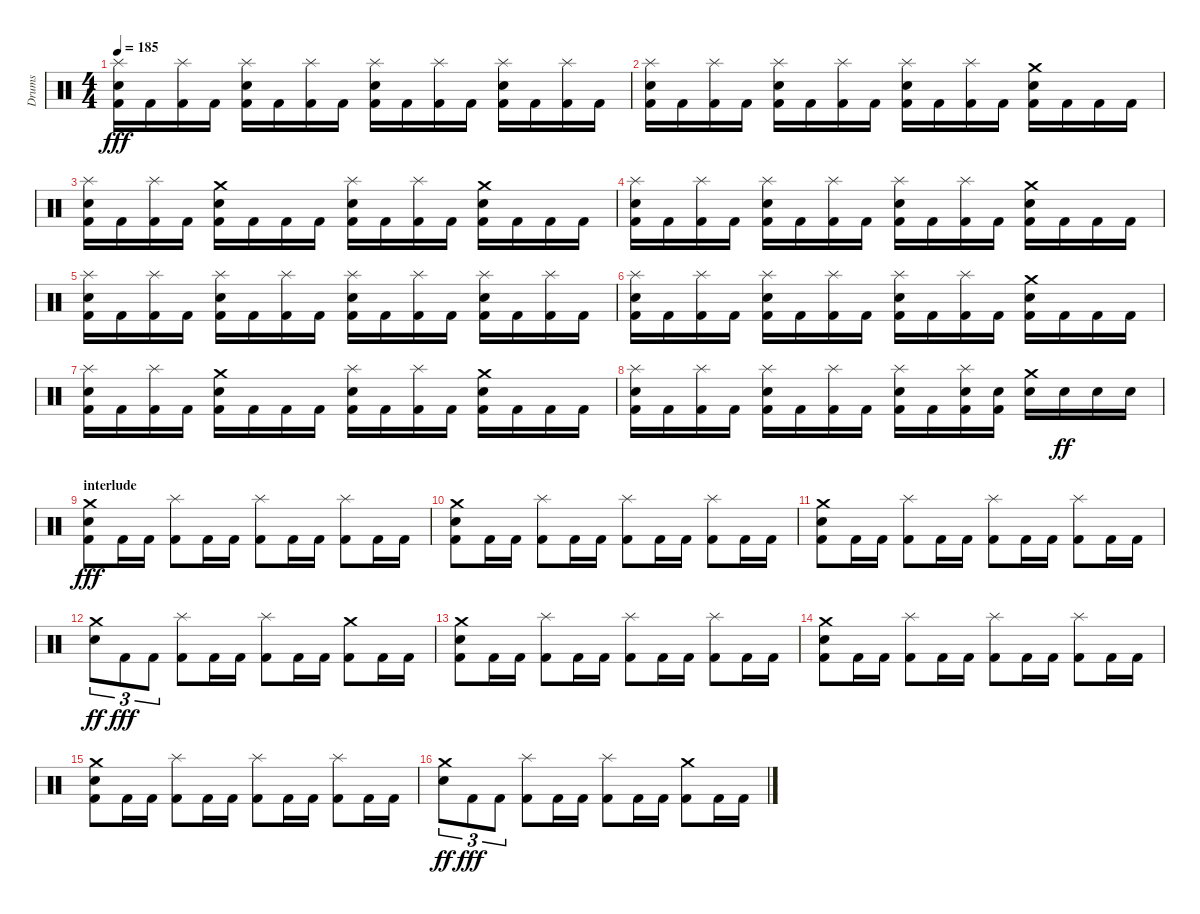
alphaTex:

\track ("Drums" "Drums") {instrument percussion}
\staff {score}
\articulation defaults
\ts (4 4)
\tempo 185
\clef neutral
\ks c
("Splash (hit)" "Electric Snare (hit)" "Kick (hit) 2").16{dy fff} "Kick (hit) 2".16 ("Splash (hit)" "Kick (hit) 2").16 "Kick (hit) 2".16 ("Splash (hit)" "Electric Snare (hit)" "Kick (hit) 2").16 "Kick (hit) 2".16 ("Splash (hit)" "Kick (hit) 2").16 "Kick (hit) 2".16 ("Splash (hit)" "Electric Snare (hit)" "Kick (hit) 2").16 "Kick (hit) 2".16 ("Splash (hit)" "Kick (hit) 2").16 "Kick (hit) 2".16 ("Splash (hit)" "Electric Snare (hit)" "Kick (hit) 2").16 "Kick (hit) 2".16 ("Splash (hit)" "Kick (hit) 2").16 "Kick (hit) 2".16 |
("Splash (hit)" "Electric Snare (hit)" "Kick (hit) 2").16 "Kick (hit) 2".16 ("Splash (hit)" "Kick (hit) 2").16 "Kick (hit) 2".16 ("Splash (hit)" "Electric Snare (hit)" "Kick (hit) 2").16 "Kick (hit) 2".16 ("Splash (hit)" "Kick (hit) 2").16 "Kick (hit) 2".16 ("Splash (hit)" "Electric Snare (hit)" "Kick (hit) 2").16 "Kick (hit) 2".16 ("Splash (hit)" "Kick (hit) 2").16 "Kick (hit) 2".16 ("Crash medium (hit)" "Electric Snare (hit)" "Kick (hit) 2").16 "Kick (hit) 2".16 "Kick (hit) 2".16 "Kick (hit) 2".16 |
("Splash (hit)" "Electric Snare (hit)" "Kick (hit) 2").16 "Kick (hit) 2".16 ("Splash (hit)" "Kick (hit) 2").16 "Kick (hit) 2".16 ("Crash medium (hit)" "Electric Snare (hit)" "Kick (hit) 2").16 "Kick (hit) 2".16 "Kick (hit) 2".16 "Kick (hit) 2".16 ("Splash (hit)" "Electric Snare (hit)" "Kick (hit) 2").16 "Kick (hit) 2".16 ("Splash (hit)" "Kick (hit) 2").16 "Kick (hit) 2".16 ("Crash medium (hit)" "Electric Snare (hit)" "Kick (hit) 2").16 "Kick (hit) 2".16 "Kick (hit) 2".16 "Kick (hit) 2".16 |
("Splash (hit)" "Electric Snare (hit)" "Kick (hit) 2").16 "Kick (hit) 2".16 ("Splash (hit)" "Kick (hit) 2").16 "Kick (hit) 2".16 ("Splash (hit)" "Electric Snare (hit)" "Kick (hit) 2").16 "Kick (hit) 2".16 ("Splash (hit)" "Kick (hit) 2").16 "Kick (hit) 2".16 ("Splash (hit)" "Electric Snare (hit)" "Kick (hit) 2").16 "Kick (hit) 2".16 ("Splash (hit)" "Kick (hit) 2").16 "Kick (hit) 2".16 ("Crash medium (hit)" "Electric Snare (hit)" "Kick (hit) 2").16 "Kick (hit) 2".16 "Kick (hit) 2".16 "Kick (hit) 2".16 |
("Splash (hit)" "Electric Snare (hit)" "Kick (hit) 2").16 "Kick (hit) 2".16 ("Splash (hit)" "Kick (hit) 2").16 "Kick (hit) 2".16 ("Splash (hit)" "Electric Snare (hit)" "Kick (hit) 2").16 "Kick (hit) 2".16 ("Splash (hit)" "Kick (hit) 2").16 "Kick (hit) 2".16 ("Splash (hit)" "Electric Snare (hit)" "Kick (hit) 2").16 "Kick (hit) 2".16 ("Splash (hit)" "Kick (hit) 2").16 "Kick (hit) 2".16 ("Splash (hit)" "Electric Snare (hit)" "Kick (hit) 2").16 "Kick (hit) 2".16 ("Splash (hit)" "Kick (hit) 2").16 "Kick (hit) 2".16 |
("Splash (hit)" "Electric Snare (hit)" "Kick (hit) 2").16 "Kick (hit) 2".16 ("Splash (hit)" "Kick (hit) 2").16 "Kick (hit) 2".16 ("Splash (hit)" "Electric Snare (hit)" "Kick (hit) 2").16 "Kick (hit) 2".16 ("Splash (hit)" "Kick (hit) 2").16 "Kick (hit) 2".16 ("Splash (hit)" "Electric Snare (hit)" "Kick (hit) 2").16 "Kick (hit) 2".16 ("Splash (hit)" "Kick (hit) 2").16 "Kick (hit) 2".16 ("Crash medium (hit)" "Electric Snare (hit)" "Kick (hit) 2").16 "Kick (hit) 2".16 "Kick (hit) 2".16 "Kick (hit) 2".16 |
("Splash (hit)" "Electric Snare (hit)" "Kick (hit) 2").16 "Kick (hit) 2".16 ("Splash (hit)" "Kick (hit) 2").16 "Kick (hit) 2".16 ("Crash medium (hit)" "Electric Snare (hit)" "Kick (hit) 2").16 "Kick (hit) 2".16 "Kick (hit) 2".16 "Kick (hit) 2".16 ("Splash (hit)" "Electric Snare (hit)" "Kick (hit) 2").16 "Kick (hit) 2".16 ("Splash (hit)" "Kick (hit) 2").16 "Kick (hit) 2".16 ("Crash medium (hit)" "Electric Snare (hit)" "Kick (hit) 2").16 "Kick (hit) 2".16 "Kick (hit) 2".16 "Kick (hit) 2".16 |
("Splash (hit)" "Electric Snare (hit)" "Kick (hit) 2").16 "Kick (hit) 2".16 ("Splash (hit)" "Kick (hit) 2").16 "Kick (hit) 2".16 ("Splash (hit)" "Electric Snare (hit)" "Kick (hit) 2").16 "Kick (hit) 2".16 ("Splash (hit)" "Kick (hit) 2").16 "Kick (hit) 2".16 ("Splash (hit)" "Electric Snare (hit)" "Kick (hit) 2").16 "Kick (hit) 2".16 ("Splash (hit)" "Electric Snare (hit)" "Kick (hit) 2").16 ("Electric Snare (hit)" "Kick (hit) 2").16 ("Crash medium (hit)" "Electric Snare (hit)").16 "Electric Snare (hit)".16{dy ff} "Electric Snare (hit)".16 "Electric Snare (hit)".16 |
\section ("" "interlude")
("Crash medium (hit)" "Electric Snare (hit)" "Kick (hit) 2").8{dy fff} "Kick (hit) 2".16 "Kick (hit) 2".16 ("Splash (hit)" "Kick (hit) 2").8 "Kick (hit) 2".16 "Kick (hit) 2".16 ("Splash (hit)" "Kick (hit) 2").8 "Kick (hit) 2".16 "Kick (hit) 2".16 ("Splash (hit)" "Kick (hit) 2").8 "Kick (hit) 2".16 "Kick (hit) 2".16 |
("Crash medium (hit)" "Electric Snare (hit)" "Kick (hit) 2").8 "Kick (hit) 2".16 "Kick (hit) 2".16 ("Splash (hit)" "Kick (hit) 2").8 "Kick (hit) 2".16 "Kick (hit) 2".16 ("Splash (hit)" "Kick (hit) 2").8 "Kick (hit) 2".16 "Kick (hit) 2".16 ("Splash (hit)" "Kick (hit) 2").8 "Kick (hit) 2".16 "Kick (hit) 2".16 |
("Crash medium (hit)" "Electric Snare (hit)" "Kick (hit) 2").8 "Kick (hit) 2".16 "Kick (hit) 2".16 ("Splash (hit)" "Kick (hit) 2").8 "Kick (hit) 2".16 "Kick (hit) 2".16 ("Splash (hit)" "Kick (hit) 2").8 "Kick (hit) 2".16 "Kick (hit) 2".16 ("Splash (hit)" "Kick (hit) 2").8 "Kick (hit) 2".16 "Kick (hit) 2".16 |
("Crash medium (hit)" "Electric Snare (hit)").8{tu (3 2) dy ff} "Kick (hit) 2".8{tu (3 2) dy fff} "Kick (hit) 2".8{tu (3 2)} ("Splash (hit)" "Kick (hit) 2").8 "Kick (hit) 2".16 "Kick (hit) 2".16 ("Splash (hit)" "Kick (hit) 2").8 "Kick (hit) 2".16 "Kick (hit) 2".16 ("Crash medium (hit)" "Kick (hit) 2").8 "Kick (hit) 2".16 "Kick (hit) 2".16 |
("Crash medium (hit)" "Electric Snare (hit)" "Kick (hit) 2").8 "Kick (hit) 2".16 "Kick (hit) 2".16 ("Splash (hit)" "Kick (hit) 2").8 "Kick (hit) 2".16 "Kick (hit) 2".16 ("Splash (hit)" "Kick (hit) 2").8 "Kick (hit) 2".16 "Kick (hit) 2".16 ("Splash (hit)" "Kick (hit) 2").8 "Kick (hit) 2".16 "Kick (hit) 2".16 |
("Crash medium (hit)" "Electric Snare (hit)" "Kick (hit) 2").8 "Kick (hit) 2".16 "Kick (hit) 2".16 ("Splash (hit)" "Kick (hit) 2").8 "Kick (hit) 2".16 "Kick (hit) 2".16 ("Splash (hit)" "Kick (hit) 2").8 "Kick (hit) 2".16 "Kick (hit) 2".16 ("Splash (hit)" "Kick (hit) 2").8 "Kick (hit) 2".16 "Kick (hit) 2".16 |
("Crash medium (hit)" "Electric Snare (hit)" "Kick (hit) 2").8 "Kick (hit) 2".16 "Kick (hit) 2".16 ("Splash (hit)" "Kick (hit) 2").8 "Kick (hit) 2".16 "Kick (hit) 2".16 ("Splash (hit)" "Kick (hit) 2").8 "Kick (hit) 2".16 "Kick (hit) 2".16 ("Splash (hit)" "Kick (hit) 2").8 "Kick (hit) 2".16 "Kick (hit) 2".16 |
("Crash medium (hit)" "Electric Snare (hit)").8{tu (3 2) dy ff} "Kick (hit) 2".8{tu (3 2) dy fff} "Kick (hit) 2".8{tu (3 2)} ("Splash (hit)" "Kick (hit) 2").8 "Kick (hit) 2".16 "Kick (hit) 2".16 ("Splash (hit)" "Kick (hit) 2").8 "Kick (hit) 2".16 "Kick (hit) 2".16 ("Crash medium (hit)" "Kick (hit) 2").8 "Kick (hit) 2".16 "Kick (hit) 2".16
